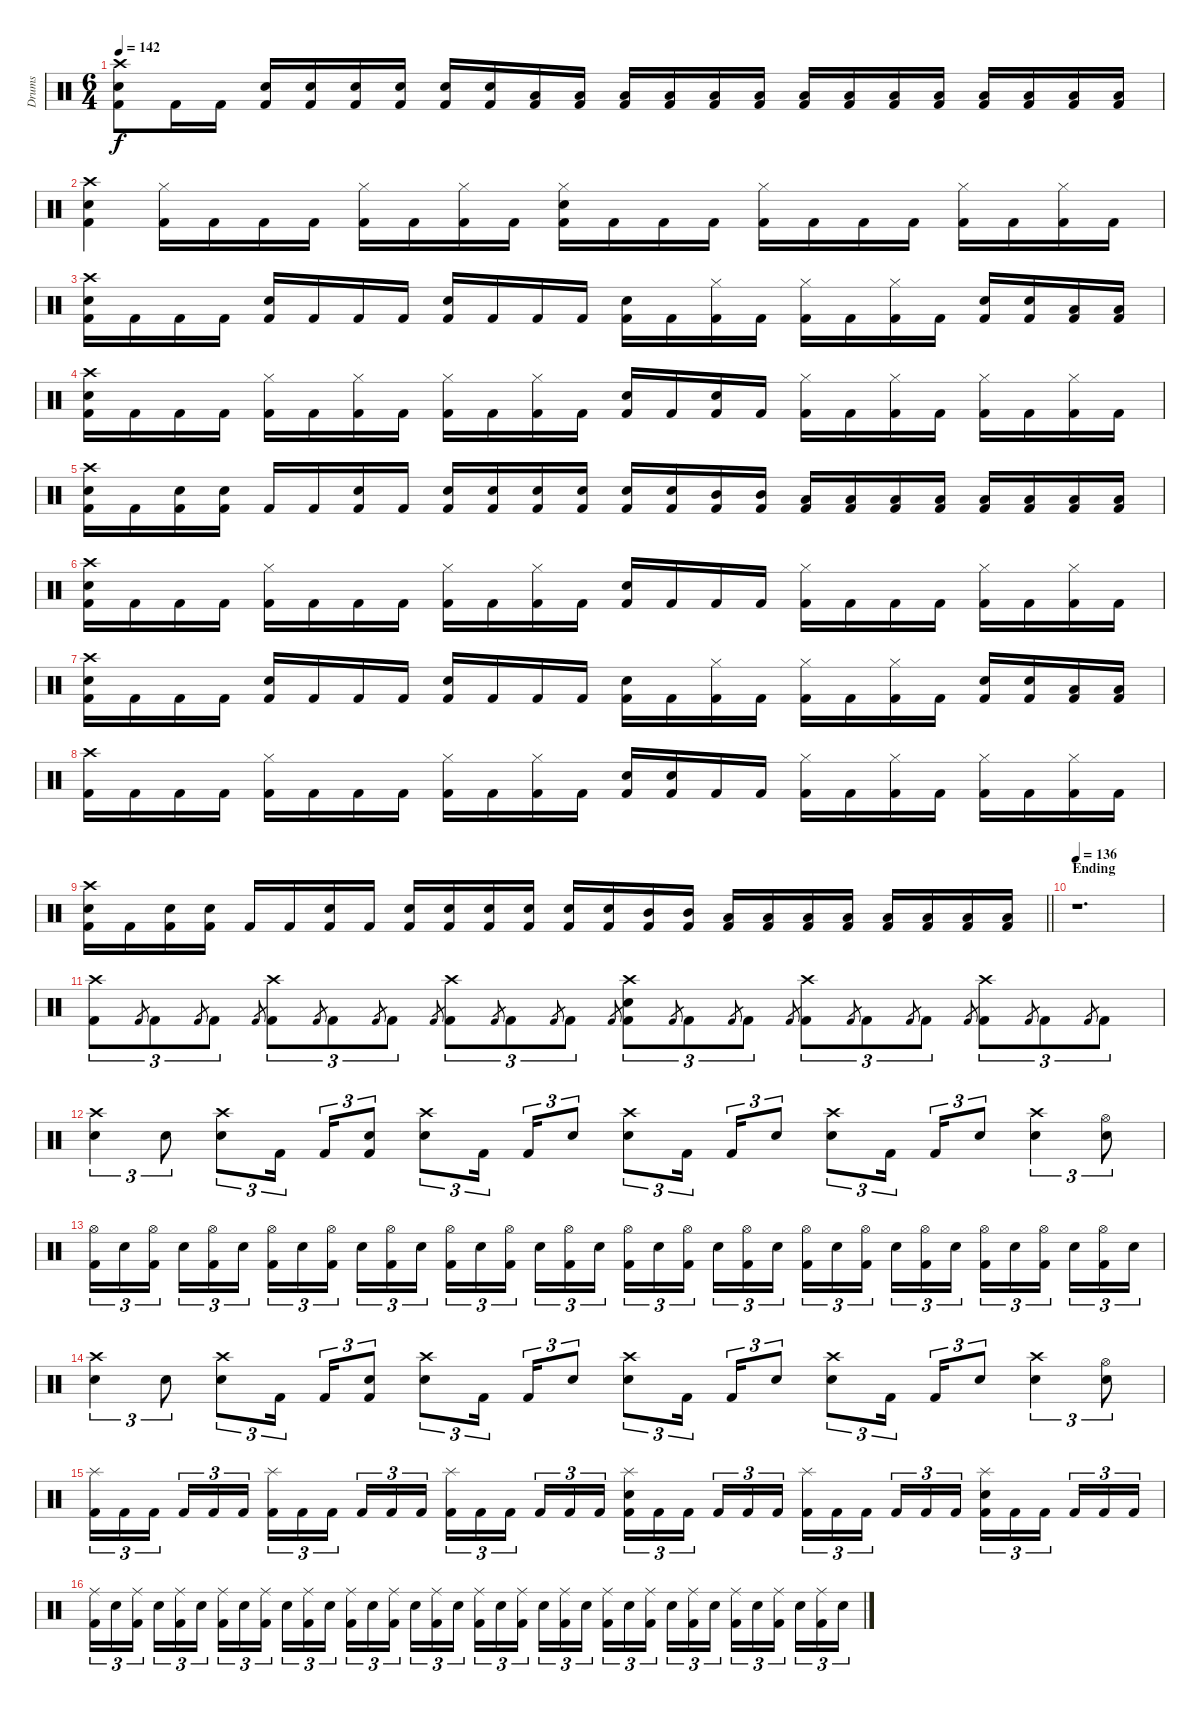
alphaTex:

\track ("Drums" "Drums") {instrument percussion}
\staff {score}
\articulation defaults
\ts (6 4)
\tempo 142
\clef neutral
\ks c
("Crash high (hit)" "Snare (hit) 2" "Kick (hit) 2").8{dy f} "Kick (hit) 2".16 "Kick (hit) 2".16 ("Snare (hit) 2" "Kick (hit) 2").16 ("Snare (hit) 2" "Kick (hit) 2").16 ("Snare (hit) 2" "Kick (hit) 2").16 ("Snare (hit) 2" "Kick (hit) 2").16 ("Snare (hit) 2" "Kick (hit) 2").16 ("Snare (hit) 2" "Kick (hit) 2").16 ("Low Tom (hit)" "Kick (hit) 2").16 ("Low Tom (hit)" "Kick (hit) 2").16 ("Low Tom (hit)" "Kick (hit) 2").16 ("Low Tom (hit)" "Kick (hit) 2").16 ("Low Tom (hit)" "Kick (hit) 2").16 ("Low Tom (hit)" "Kick (hit) 2").16 ("Low Floor Tom (hit)" "Kick (hit) 2").16 ("Low Floor Tom (hit)" "Kick (hit) 2").16 ("Low Floor Tom (hit)" "Kick (hit) 2").16 ("Low Floor Tom (hit)" "Kick (hit) 2").16 ("Low Floor Tom (hit)" "Kick (hit) 2").16 ("Low Floor Tom (hit)" "Kick (hit) 2").16 ("Low Floor Tom (hit)" "Kick (hit) 2").16 ("Low Floor Tom (hit)" "Kick (hit) 2").16 |
("Crash high (hit)" "Snare (hit) 2" "Kick (hit) 2").4 ("Kick (hit) 2" "Hi-Hat (closed)").16 "Kick (hit) 2".16 "Kick (hit) 2".16 "Kick (hit) 2".16 ("Kick (hit) 2" "Hi-Hat (closed)").16 "Kick (hit) 2".16 ("Kick (hit) 2" "Hi-Hat (closed)").16 "Kick (hit) 2".16 ("Kick (hit) 2" "Hi-Hat (closed)" "Snare (hit) 2").16 "Kick (hit) 2".16 "Kick (hit) 2".16 "Kick (hit) 2".16 ("Kick (hit) 2" "Hi-Hat (closed)").16 "Kick (hit) 2".16 "Kick (hit) 2".16 "Kick (hit) 2".16 ("Kick (hit) 2" "Hi-Hat (closed)").16 "Kick (hit) 2".16 ("Kick (hit) 2" "Hi-Hat (closed)").16 "Kick (hit) 2".16 |
("Crash high (hit)" "Kick (hit) 2" "Snare (hit) 2").16 "Kick (hit) 2".16 "Kick (hit) 2".16 "Kick (hit) 2".16 ("Kick (hit) 2" "Snare (hit) 2").16 "Kick (hit) 2".16 "Kick (hit) 2".16 "Kick (hit) 2".16 ("Kick (hit) 2" "Snare (hit) 2").16 "Kick (hit) 2".16 "Kick (hit) 2".16 "Kick (hit) 2".16 ("Kick (hit) 2" "Snare (hit) 2").16 "Kick (hit) 2".16 ("Hi-Hat (closed)" "Kick (hit) 2").16 "Kick (hit) 2".16 ("Hi-Hat (closed)" "Kick (hit) 2").16 "Kick (hit) 2".16 ("Hi-Hat (closed)" "Kick (hit) 2").16 "Kick (hit) 2".16 ("Kick (hit) 2" "Snare (hit) 2").16 ("Kick (hit) 2" "Snare (hit) 2").16 ("Kick (hit) 2" "Low Floor Tom (hit)").16 ("Kick (hit) 2" "Low Floor Tom (hit)").16 |
("Kick (hit) 2" "Crash high (hit)" "Snare (hit) 2").16 "Kick (hit) 2".16 "Kick (hit) 2".16 "Kick (hit) 2".16 ("Kick (hit) 2" "Hi-Hat (closed)").16 "Kick (hit) 2".16 ("Kick (hit) 2" "Hi-Hat (closed)").16 "Kick (hit) 2".16 ("Kick (hit) 2" "Hi-Hat (closed)").16 "Kick (hit) 2".16 ("Kick (hit) 2" "Hi-Hat (closed)").16 "Kick (hit) 2".16 ("Kick (hit) 2" "Snare (hit) 2").16 "Kick (hit) 2".16 ("Kick (hit) 2" "Snare (hit) 2").16 "Kick (hit) 2".16 ("Kick (hit) 2" "Hi-Hat (closed)").16 "Kick (hit) 2".16 ("Kick (hit) 2" "Hi-Hat (closed)").16 "Kick (hit) 2".16 ("Kick (hit) 2" "Hi-Hat (closed)").16 "Kick (hit) 2".16 ("Kick (hit) 2" "Hi-Hat (closed)").16 "Kick (hit) 2".16 |
("Snare (hit) 2" "Kick (hit) 2" "Crash high (hit)").16 "Kick (hit) 2".16 ("Snare (hit) 2" "Kick (hit) 2").16 ("Snare (hit) 2" "Kick (hit) 2").16 "Kick (hit) 2".16 "Kick (hit) 2".16 ("Snare (hit) 2" "Kick (hit) 2").16 "Kick (hit) 2".16 ("Snare (hit) 2" "Kick (hit) 2").16 ("Snare (hit) 2" "Kick (hit) 2").16 ("Snare (hit) 2" "Kick (hit) 2").16 ("Snare (hit) 2" "Kick (hit) 2").16 ("Snare (hit) 2" "Kick (hit) 2").16 ("Snare (hit) 2" "Kick (hit) 2").16 ("Mid Tom (hit)" "Kick (hit) 2").16 ("Mid Tom (hit)" "Kick (hit) 2").16 ("Low Tom (hit)" "Kick (hit) 2").16 ("Low Floor Tom (hit)" "Kick (hit) 2").16 ("Low Tom (hit)" "Kick (hit) 2").16 ("Low Floor Tom (hit)" "Kick (hit) 2").16 ("Low Tom (hit)" "Kick (hit) 2").16 ("Low Floor Tom (hit)" "Kick (hit) 2").16 ("Low Tom (hit)" "Kick (hit) 2").16 ("Low Floor Tom (hit)" "Kick (hit) 2").16 |
("Kick (hit) 2" "Crash high (hit)" "Snare (hit) 2").16 "Kick (hit) 2".16 "Kick (hit) 2".16 "Kick (hit) 2".16 ("Kick (hit) 2" "Hi-Hat (closed)").16 "Kick (hit) 2".16 "Kick (hit) 2".16 "Kick (hit) 2".16 ("Kick (hit) 2" "Hi-Hat (closed)").16 "Kick (hit) 2".16 ("Kick (hit) 2" "Hi-Hat (closed)").16 "Kick (hit) 2".16 ("Kick (hit) 2" "Snare (hit) 2").16 "Kick (hit) 2".16 "Kick (hit) 2".16 "Kick (hit) 2".16 ("Kick (hit) 2" "Hi-Hat (closed)").16 "Kick (hit) 2".16 "Kick (hit) 2".16 "Kick (hit) 2".16 ("Kick (hit) 2" "Hi-Hat (closed)").16 "Kick (hit) 2".16 ("Kick (hit) 2" "Hi-Hat (closed)").16 "Kick (hit) 2".16 |
("Crash high (hit)" "Kick (hit) 2" "Snare (hit) 2").16 "Kick (hit) 2".16 "Kick (hit) 2".16 "Kick (hit) 2".16 ("Kick (hit) 2" "Snare (hit) 2").16 "Kick (hit) 2".16 "Kick (hit) 2".16 "Kick (hit) 2".16 ("Kick (hit) 2" "Snare (hit) 2").16 "Kick (hit) 2".16 "Kick (hit) 2".16 "Kick (hit) 2".16 ("Kick (hit) 2" "Snare (hit) 2").16 "Kick (hit) 2".16 ("Hi-Hat (closed)" "Kick (hit) 2").16 "Kick (hit) 2".16 ("Hi-Hat (closed)" "Kick (hit) 2").16 "Kick (hit) 2".16 ("Hi-Hat (closed)" "Kick (hit) 2").16 "Kick (hit) 2".16 ("Kick (hit) 2" "Snare (hit) 2").16 ("Kick (hit) 2" "Snare (hit) 2").16 ("Kick (hit) 2" "Low Floor Tom (hit)").16 ("Kick (hit) 2" "Low Floor Tom (hit)").16 |
("Crash high (hit)" "Kick (hit) 2").16 "Kick (hit) 2".16 "Kick (hit) 2".16 "Kick (hit) 2".16 ("Hi-Hat (closed)" "Kick (hit) 2").16 "Kick (hit) 2".16 "Kick (hit) 2".16 "Kick (hit) 2".16 ("Hi-Hat (closed)" "Kick (hit) 2").16 "Kick (hit) 2".16 ("Hi-Hat (closed)" "Kick (hit) 2").16 "Kick (hit) 2".16 ("Snare (hit) 2" "Kick (hit) 2").16 ("Snare (hit) 2" "Kick (hit) 2").16 "Kick (hit) 2".16 "Kick (hit) 2".16 ("Hi-Hat (closed)" "Kick (hit) 2").16 "Kick (hit) 2".16 ("Hi-Hat (closed)" "Kick (hit) 2").16 "Kick (hit) 2".16 ("Hi-Hat (closed)" "Kick (hit) 2").16 "Kick (hit) 2".16 ("Hi-Hat (closed)" "Kick (hit) 2").16 "Kick (hit) 2".16 |
\barLineRight lightlight
("Snare (hit) 2" "Kick (hit) 2" "Crash high (hit)").16 "Kick (hit) 2".16 ("Snare (hit) 2" "Kick (hit) 2").16 ("Snare (hit) 2" "Kick (hit) 2").16 "Kick (hit) 2".16 "Kick (hit) 2".16 ("Snare (hit) 2" "Kick (hit) 2").16 "Kick (hit) 2".16 ("Snare (hit) 2" "Kick (hit) 2").16 ("Snare (hit) 2" "Kick (hit) 2").16 ("Snare (hit) 2" "Kick (hit) 2").16 ("Snare (hit) 2" "Kick (hit) 2").16 ("Snare (hit) 2" "Kick (hit) 2").16 ("Snare (hit) 2" "Kick (hit) 2").16 ("Mid Tom (hit)" "Kick (hit) 2").16 ("Mid Tom (hit)" "Kick (hit) 2").16 ("Low Tom (hit)" "Kick (hit) 2").16 ("Low Floor Tom (hit)" "Kick (hit) 2").16 ("Low Tom (hit)" "Kick (hit) 2").16 ("Low Floor Tom (hit)" "Kick (hit) 2").16 ("Low Tom (hit)" "Kick (hit) 2").16 ("Low Floor Tom (hit)" "Kick (hit) 2").16 ("Low Tom (hit)" "Kick (hit) 2").16 ("Low Floor Tom (hit)" "Kick (hit) 2").16 |
\section ("" "Ending")
\tempo 136
r.1{d} |
("Kick (hit) 2" "Crash high (hit)").8{tu (3 2)} "Kick (hit) 2".8{gr} "Kick (hit) 2".8{tu (3 2)} "Kick (hit) 2".8{gr} "Kick (hit) 2".8{tu (3 2)} "Kick (hit) 2".8{gr} ("Kick (hit) 2" "Crash high (hit)").8{tu (3 2)} "Kick (hit) 2".8{gr} "Kick (hit) 2".8{tu (3 2)} "Kick (hit) 2".8{gr} "Kick (hit) 2".8{tu (3 2)} "Kick (hit) 2".8{gr} ("Kick (hit) 2" "Crash high (hit)").8{tu (3 2)} "Kick (hit) 2".8{gr} "Kick (hit) 2".8{tu (3 2)} "Kick (hit) 2".8{gr} "Kick (hit) 2".8{tu (3 2)} "Kick (hit) 2".8{gr} ("Kick (hit) 2" "Crash high (hit)" "Snare (hit) 2").8{tu (3 2)} "Kick (hit) 2".8{gr} "Kick (hit) 2".8{tu (3 2)} "Kick (hit) 2".8{gr} "Kick (hit) 2".8{tu (3 2)} "Kick (hit) 2".8{gr} ("Kick (hit) 2" "Crash high (hit)").8{tu (3 2)} "Kick (hit) 2".8{gr} "Kick (hit) 2".8{tu (3 2)} "Kick (hit) 2".8{gr} "Kick (hit) 2".8{tu (3 2)} "Kick (hit) 2".8{gr} ("Kick (hit) 2" "Crash high (hit)").8{tu (3 2)} "Kick (hit) 2".8{gr} "Kick (hit) 2".8{tu (3 2)} "Kick (hit) 2".8{gr} "Kick (hit) 2".8{tu (3 2)} |
("Crash high (hit)" "Snare (hit) 2").4{tu (3 2)} "Snare (hit) 2".8{tu (3 2)} ("Crash high (hit)" "Snare (hit) 2").8{tu (3 2)} "Kick (hit) 2".16{tu (3 2) beam splitsecondary} "Kick (hit) 2".16{tu (3 2)} ("Snare (hit) 2" "Kick (hit) 2").8{tu (3 2)} ("Crash high (hit)" "Snare (hit) 2").8{tu (3 2)} "Kick (hit) 2".16{tu (3 2) beam splitsecondary} "Kick (hit) 2".16{tu (3 2)} "Snare (hit) 2".8{tu (3 2)} ("Crash high (hit)" "Snare (hit) 2").8{tu (3 2)} "Kick (hit) 2".16{tu (3 2) beam splitsecondary} "Kick (hit) 2".16{tu (3 2)} "Snare (hit) 2".8{tu (3 2)} ("Crash high (hit)" "Snare (hit) 2").8{tu (3 2)} "Kick (hit) 2".16{tu (3 2) beam splitsecondary} "Kick (hit) 2".16{tu (3 2)} "Snare (hit) 2".8{tu (3 2)} ("Snare (hit) 2" "Crash high (hit)").4{tu (3 2)} ("Snare (hit) 2" "Hi-Hat (open)").8{tu (3 2)} |
("Kick (hit) 2" "Hi-Hat (open)").16{tu (3 2)} "Snare (hit) 2".16{tu (3 2)} ("Kick (hit) 2" "Hi-Hat (open)").16{tu (3 2) beam splitsecondary} "Snare (hit) 2".16{tu (3 2)} ("Kick (hit) 2" "Hi-Hat (open)").16{tu (3 2)} "Snare (hit) 2".16{tu (3 2) beam splitsecondary} ("Kick (hit) 2" "Hi-Hat (open)").16{tu (3 2)} "Snare (hit) 2".16{tu (3 2)} ("Kick (hit) 2" "Hi-Hat (open)").16{tu (3 2) beam splitsecondary} "Snare (hit) 2".16{tu (3 2)} ("Kick (hit) 2" "Hi-Hat (open)").16{tu (3 2)} "Snare (hit) 2".16{tu (3 2) beam splitsecondary} ("Kick (hit) 2" "Hi-Hat (open)").16{tu (3 2)} "Snare (hit) 2".16{tu (3 2)} ("Kick (hit) 2" "Hi-Hat (open)").16{tu (3 2) beam splitsecondary} "Snare (hit) 2".16{tu (3 2)} ("Kick (hit) 2" "Hi-Hat (open)").16{tu (3 2)} "Snare (hit) 2".16{tu (3 2)} ("Kick (hit) 2" "Hi-Hat (open)").16{tu (3 2)} "Snare (hit) 2".16{tu (3 2)} ("Kick (hit) 2" "Hi-Hat (open)").16{tu (3 2) beam splitsecondary} "Snare (hit) 2".16{tu (3 2)} ("Kick (hit) 2" "Hi-Hat (open)").16{tu (3 2)} "Snare (hit) 2".16{tu (3 2) beam splitsecondary} ("Kick (hit) 2" "Hi-Hat (open)").16{tu (3 2)} "Snare (hit) 2".16{tu (3 2)} ("Kick (hit) 2" "Hi-Hat (open)").16{tu (3 2) beam splitsecondary} "Snare (hit) 2".16{tu (3 2)} ("Kick (hit) 2" "Hi-Hat (open)").16{tu (3 2)} "Snare (hit) 2".16{tu (3 2) beam splitsecondary} ("Kick (hit) 2" "Hi-Hat (open)").16{tu (3 2)} "Snare (hit) 2".16{tu (3 2)} ("Kick (hit) 2" "Hi-Hat (open)").16{tu (3 2) beam splitsecondary} "Snare (hit) 2".16{tu (3 2)} ("Kick (hit) 2" "Hi-Hat (open)").16{tu (3 2)} "Snare (hit) 2".16{tu (3 2)} |
("Crash high (hit)" "Snare (hit) 2").4{tu (3 2)} "Snare (hit) 2".8{tu (3 2)} ("Crash high (hit)" "Snare (hit) 2").8{tu (3 2)} "Kick (hit) 2".16{tu (3 2) beam splitsecondary} "Kick (hit) 2".16{tu (3 2)} ("Snare (hit) 2" "Kick (hit) 2").8{tu (3 2)} ("Crash high (hit)" "Snare (hit) 2").8{tu (3 2)} "Kick (hit) 2".16{tu (3 2) beam splitsecondary} "Kick (hit) 2".16{tu (3 2)} "Snare (hit) 2".8{tu (3 2)} ("Crash high (hit)" "Snare (hit) 2").8{tu (3 2)} "Kick (hit) 2".16{tu (3 2) beam splitsecondary} "Kick (hit) 2".16{tu (3 2)} "Snare (hit) 2".8{tu (3 2)} ("Crash high (hit)" "Snare (hit) 2").8{tu (3 2)} "Kick (hit) 2".16{tu (3 2) beam splitsecondary} "Kick (hit) 2".16{tu (3 2)} "Snare (hit) 2".8{tu (3 2)} ("Snare (hit) 2" "Crash high (hit)").4{tu (3 2)} ("Snare (hit) 2" "Hi-Hat (open)").8{tu (3 2)} |
("Splash (hit)" "Kick (hit) 2").16{tu (3 2)} "Kick (hit) 2".16{tu (3 2)} "Kick (hit) 2".16{tu (3 2) beam splitsecondary} "Kick (hit) 2".16{tu (3 2)} "Kick (hit) 2".16{tu (3 2)} "Kick (hit) 2".16{tu (3 2) beam splitsecondary} ("Splash (hit)" "Kick (hit) 2").16{tu (3 2)} "Kick (hit) 2".16{tu (3 2)} "Kick (hit) 2".16{tu (3 2) beam splitsecondary} "Kick (hit) 2".16{tu (3 2)} "Kick (hit) 2".16{tu (3 2)} "Kick (hit) 2".16{tu (3 2) beam splitsecondary} ("Splash (hit)" "Kick (hit) 2").16{tu (3 2)} "Kick (hit) 2".16{tu (3 2)} "Kick (hit) 2".16{tu (3 2) beam splitsecondary} "Kick (hit) 2".16{tu (3 2)} "Kick (hit) 2".16{tu (3 2)} "Kick (hit) 2".16{tu (3 2)} ("Snare (hit) 2" "Splash (hit)" "Kick (hit) 2").16{tu (3 2)} "Kick (hit) 2".16{tu (3 2)} "Kick (hit) 2".16{tu (3 2) beam splitsecondary} "Kick (hit) 2".16{tu (3 2)} "Kick (hit) 2".16{tu (3 2)} "Kick (hit) 2".16{tu (3 2) beam splitsecondary} ("Splash (hit)" "Kick (hit) 2").16{tu (3 2)} "Kick (hit) 2".16{tu (3 2)} "Kick (hit) 2".16{tu (3 2) beam splitsecondary} "Kick (hit) 2".16{tu (3 2)} "Kick (hit) 2".16{tu (3 2)} "Kick (hit) 2".16{tu (3 2) beam splitsecondary} ("Snare (hit) 2" "Splash (hit)" "Kick (hit) 2").16{tu (3 2)} "Kick (hit) 2".16{tu (3 2)} "Kick (hit) 2".16{tu (3 2) beam splitsecondary} "Kick (hit) 2".16{tu (3 2)} "Kick (hit) 2".16{tu (3 2)} "Kick (hit) 2".16{tu (3 2)} |
("Kick (hit) 2" "Ride (middle)").16{tu (3 2)} "Snare (hit) 2".16{tu (3 2)} ("Kick (hit) 2" "Ride (middle)").16{tu (3 2) beam splitsecondary} "Snare (hit) 2".16{tu (3 2)} ("Kick (hit) 2" "Ride (middle)").16{tu (3 2)} "Snare (hit) 2".16{tu (3 2) beam splitsecondary} ("Kick (hit) 2" "Ride (middle)").16{tu (3 2)} "Snare (hit) 2".16{tu (3 2)} ("Kick (hit) 2" "Ride (middle)").16{tu (3 2) beam splitsecondary} "Snare (hit) 2".16{tu (3 2)} ("Kick (hit) 2" "Ride (middle)").16{tu (3 2)} "Snare (hit) 2".16{tu (3 2) beam splitsecondary} ("Kick (hit) 2" "Ride (middle)").16{tu (3 2)} "Snare (hit) 2".16{tu (3 2)} ("Kick (hit) 2" "Ride (middle)").16{tu (3 2) beam splitsecondary} "Snare (hit) 2".16{tu (3 2)} ("Kick (hit) 2" "Ride (middle)").16{tu (3 2)} "Snare (hit) 2".16{tu (3 2)} ("Kick (hit) 2" "Ride (middle)").16{tu (3 2)} "Snare (hit) 2".16{tu (3 2)} ("Kick (hit) 2" "Ride (middle)").16{tu (3 2) beam splitsecondary} "Snare (hit) 2".16{tu (3 2)} ("Kick (hit) 2" "Ride (middle)").16{tu (3 2)} "Snare (hit) 2".16{tu (3 2) beam splitsecondary} ("Kick (hit) 2" "Ride (middle)").16{tu (3 2)} "Snare (hit) 2".16{tu (3 2)} ("Kick (hit) 2" "Ride (middle)").16{tu (3 2) beam splitsecondary} "Snare (hit) 2".16{tu (3 2)} ("Kick (hit) 2" "Ride (middle)").16{tu (3 2)} "Snare (hit) 2".16{tu (3 2) beam splitsecondary} ("Kick (hit) 2" "Ride (middle)").16{tu (3 2)} "Snare (hit) 2".16{tu (3 2)} ("Kick (hit) 2" "Ride (middle)").16{tu (3 2) beam splitsecondary} "Snare (hit) 2".16{tu (3 2)} ("Kick (hit) 2" "Ride (middle)").16{tu (3 2)} "Snare (hit) 2".16{tu (3 2)}
